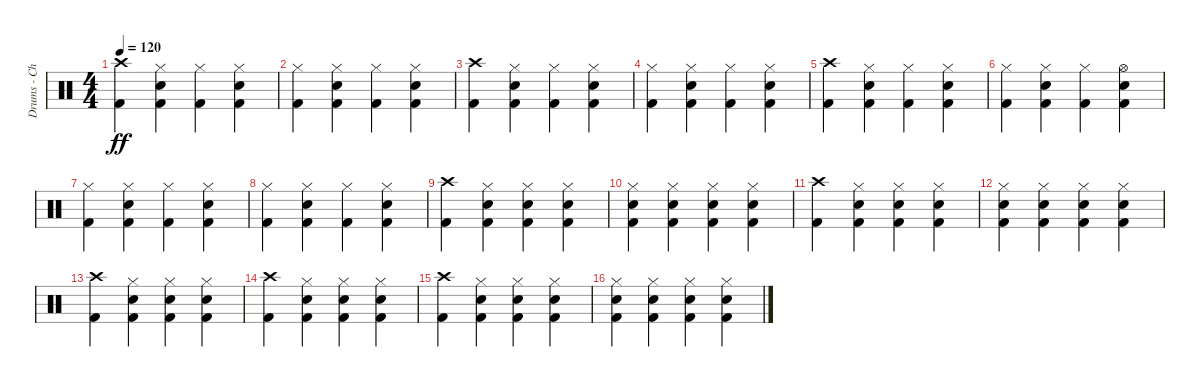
\track ("Drums - Chris Frantz" "Drums - Ch") {instrument percussion}
\staff {score}
\articulation defaults
\ts (4 4)
\tempo 120
\clef neutral
\ks c
("Kick (hit) 2" "Crash high (hit)").4{dy ff} ("Kick (hit) 2" "Snare (hit) 2" "Hi-Hat (closed)").4 ("Kick (hit) 2" "Hi-Hat (closed)").4 ("Kick (hit) 2" "Snare (hit) 2" "Hi-Hat (closed)").4 |
("Kick (hit) 2" "Hi-Hat (closed)").4 ("Kick (hit) 2" "Snare (hit) 2" "Hi-Hat (closed)").4 ("Kick (hit) 2" "Hi-Hat (closed)").4 ("Kick (hit) 2" "Snare (hit) 2" "Hi-Hat (closed)").4 |
("Kick (hit) 2" "Crash high (hit)").4 ("Kick (hit) 2" "Snare (hit) 2" "Hi-Hat (closed)").4 ("Kick (hit) 2" "Hi-Hat (closed)").4 ("Kick (hit) 2" "Snare (hit) 2" "Hi-Hat (closed)").4 |
("Kick (hit) 2" "Hi-Hat (closed)").4 ("Kick (hit) 2" "Snare (hit) 2" "Hi-Hat (closed)").4 ("Kick (hit) 2" "Hi-Hat (closed)").4 ("Kick (hit) 2" "Snare (hit) 2" "Hi-Hat (closed)").4 |
("Kick (hit) 2" "Crash high (hit)").4 ("Kick (hit) 2" "Snare (hit) 2" "Hi-Hat (closed)").4 ("Kick (hit) 2" "Hi-Hat (closed)").4 ("Kick (hit) 2" "Snare (hit) 2" "Hi-Hat (closed)").4 |
("Kick (hit) 2" "Hi-Hat (closed)").4 ("Kick (hit) 2" "Snare (hit) 2" "Hi-Hat (closed)").4 ("Kick (hit) 2" "Hi-Hat (closed)").4 ("Kick (hit) 2" "Snare (hit) 2" "Hi-Hat (open)").4 |
("Kick (hit) 2" "Hi-Hat (closed)").4 ("Kick (hit) 2" "Snare (hit) 2" "Hi-Hat (closed)").4 ("Kick (hit) 2" "Hi-Hat (closed)").4 ("Kick (hit) 2" "Snare (hit) 2" "Hi-Hat (closed)").4 |
("Kick (hit) 2" "Hi-Hat (closed)").4 ("Kick (hit) 2" "Snare (hit) 2" "Hi-Hat (closed)").4 ("Kick (hit) 2" "Hi-Hat (closed)").4 ("Kick (hit) 2" "Snare (hit) 2" "Hi-Hat (closed)").4 |
("Kick (hit) 2" "Crash high (hit)").4 ("Kick (hit) 2" "Snare (hit) 2" "Hi-Hat (closed)").4 ("Kick (hit) 2" "Snare (hit) 2" "Hi-Hat (closed)").4 ("Kick (hit) 2" "Snare (hit) 2" "Hi-Hat (closed)").4 |
("Kick (hit) 2" "Snare (hit) 2" "Hi-Hat (closed)").4 ("Kick (hit) 2" "Snare (hit) 2" "Hi-Hat (closed)").4 ("Kick (hit) 2" "Snare (hit) 2" "Hi-Hat (closed)").4 ("Kick (hit) 2" "Snare (hit) 2" "Hi-Hat (closed)").4 |
("Kick (hit) 2" "Crash high (hit)").4 ("Kick (hit) 2" "Snare (hit) 2" "Hi-Hat (closed)").4 ("Kick (hit) 2" "Snare (hit) 2" "Hi-Hat (closed)").4 ("Kick (hit) 2" "Snare (hit) 2" "Hi-Hat (closed)").4 |
("Kick (hit) 2" "Snare (hit) 2" "Hi-Hat (closed)").4 ("Kick (hit) 2" "Snare (hit) 2" "Hi-Hat (closed)").4 ("Kick (hit) 2" "Snare (hit) 2" "Hi-Hat (closed)").4 ("Kick (hit) 2" "Snare (hit) 2" "Hi-Hat (closed)").4 |
("Kick (hit) 2" "Crash high (hit)").4 ("Kick (hit) 2" "Snare (hit) 2" "Hi-Hat (closed)").4 ("Kick (hit) 2" "Snare (hit) 2" "Hi-Hat (closed)").4 ("Kick (hit) 2" "Snare (hit) 2" "Hi-Hat (closed)").4 |
("Kick (hit) 2" "Crash high (hit)").4 ("Kick (hit) 2" "Snare (hit) 2" "Hi-Hat (closed)").4 ("Kick (hit) 2" "Snare (hit) 2" "Hi-Hat (closed)").4 ("Kick (hit) 2" "Snare (hit) 2" "Hi-Hat (closed)").4 |
("Kick (hit) 2" "Crash high (hit)").4 ("Kick (hit) 2" "Snare (hit) 2" "Hi-Hat (closed)").4 ("Kick (hit) 2" "Snare (hit) 2" "Hi-Hat (closed)").4 ("Kick (hit) 2" "Snare (hit) 2" "Hi-Hat (closed)").4 |
("Kick (hit) 2" "Snare (hit) 2" "Hi-Hat (closed)").4 ("Kick (hit) 2" "Snare (hit) 2" "Hi-Hat (closed)").4 ("Kick (hit) 2" "Snare (hit) 2" "Hi-Hat (closed)").4 ("Kick (hit) 2" "Snare (hit) 2" "Hi-Hat (closed)").4
